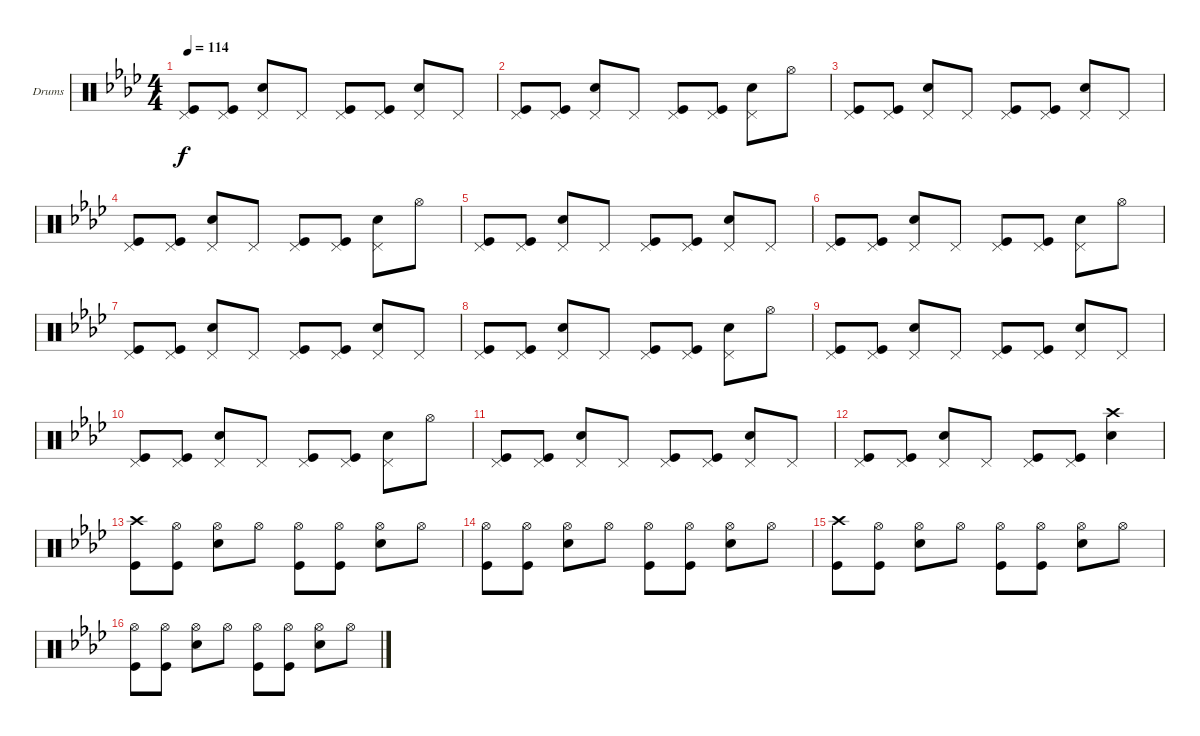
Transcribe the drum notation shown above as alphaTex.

\defaultSystemsLayout 4
\bracketExtendMode groupsimilarinstruments
\firstSystemTrackNameOrientation horizontal
\otherSystemsTrackNameOrientation horizontal
\track ("Drumkit" "Drums") {instrument percussion}
\staff {score}
\articulation defaults
\ts (4 4)
\tempo 114
\clef neutral
\scale
1.06431
\ks ab
("Pedal Hi-Hat (hit)" "Kick (hit)").8{dy f} ("Pedal Hi-Hat (hit)" "Kick (hit)").8 ("Pedal Hi-Hat (hit)" "Snare (hit) 2").8 "Pedal Hi-Hat (hit)".8 ("Pedal Hi-Hat (hit)" "Kick (hit)").8 ("Pedal Hi-Hat (hit)" "Kick (hit)").8 ("Pedal Hi-Hat (hit)" "Snare (hit) 2").8 "Pedal Hi-Hat (hit)".8 |
\scale
0.935687 ("Pedal Hi-Hat (hit)" "Kick (hit)").8 ("Pedal Hi-Hat (hit)" "Kick (hit)").8 ("Pedal Hi-Hat (hit)" "Snare (hit) 2").8 "Pedal Hi-Hat (hit)".8 ("Pedal Hi-Hat (hit)" "Kick (hit)").8 ("Pedal Hi-Hat (hit)" "Kick (hit)").8 ("Pedal Hi-Hat (hit)" "Snare (hit) 2").8 "Hi-Hat (open)".8 |
\scale
1.06431 ("Pedal Hi-Hat (hit)" "Kick (hit)").8 ("Pedal Hi-Hat (hit)" "Kick (hit)").8 ("Pedal Hi-Hat (hit)" "Snare (hit) 2").8 "Pedal Hi-Hat (hit)".8 ("Pedal Hi-Hat (hit)" "Kick (hit)").8 ("Pedal Hi-Hat (hit)" "Kick (hit)").8 ("Pedal Hi-Hat (hit)" "Snare (hit) 2").8 "Pedal Hi-Hat (hit)".8 |
\scale
0.935687 ("Pedal Hi-Hat (hit)" "Kick (hit)").8 ("Pedal Hi-Hat (hit)" "Kick (hit)").8 ("Pedal Hi-Hat (hit)" "Snare (hit) 2").8 "Pedal Hi-Hat (hit)".8 ("Pedal Hi-Hat (hit)" "Kick (hit)").8 ("Pedal Hi-Hat (hit)" "Kick (hit)").8 ("Pedal Hi-Hat (hit)" "Snare (hit) 2").8 "Hi-Hat (open)".8 |
\scale
1.06431 ("Pedal Hi-Hat (hit)" "Kick (hit)").8 ("Pedal Hi-Hat (hit)" "Kick (hit)").8 ("Pedal Hi-Hat (hit)" "Snare (hit) 2").8 "Pedal Hi-Hat (hit)".8 ("Pedal Hi-Hat (hit)" "Kick (hit)").8 ("Pedal Hi-Hat (hit)" "Kick (hit)").8 ("Pedal Hi-Hat (hit)" "Snare (hit) 2").8 "Pedal Hi-Hat (hit)".8 |
\scale
0.935687 ("Pedal Hi-Hat (hit)" "Kick (hit)").8 ("Pedal Hi-Hat (hit)" "Kick (hit)").8 ("Pedal Hi-Hat (hit)" "Snare (hit) 2").8 "Pedal Hi-Hat (hit)".8 ("Pedal Hi-Hat (hit)" "Kick (hit)").8 ("Pedal Hi-Hat (hit)" "Kick (hit)").8 ("Pedal Hi-Hat (hit)" "Snare (hit) 2").8 "Hi-Hat (open)".8 |
\scale
1.06431 ("Pedal Hi-Hat (hit)" "Kick (hit)").8 ("Pedal Hi-Hat (hit)" "Kick (hit)").8 ("Pedal Hi-Hat (hit)" "Snare (hit) 2").8 "Pedal Hi-Hat (hit)".8 ("Pedal Hi-Hat (hit)" "Kick (hit)").8 ("Pedal Hi-Hat (hit)" "Kick (hit)").8 ("Pedal Hi-Hat (hit)" "Snare (hit) 2").8 "Pedal Hi-Hat (hit)".8 |
\scale
0.935687 ("Pedal Hi-Hat (hit)" "Kick (hit)").8 ("Pedal Hi-Hat (hit)" "Kick (hit)").8 ("Pedal Hi-Hat (hit)" "Snare (hit) 2").8 "Pedal Hi-Hat (hit)".8 ("Pedal Hi-Hat (hit)" "Kick (hit)").8 ("Pedal Hi-Hat (hit)" "Kick (hit)").8 ("Pedal Hi-Hat (hit)" "Snare (hit) 2").8 "Hi-Hat (open)".8 |
\scale
1.06431 ("Pedal Hi-Hat (hit)" "Kick (hit)").8 ("Pedal Hi-Hat (hit)" "Kick (hit)").8 ("Pedal Hi-Hat (hit)" "Snare (hit) 2").8 "Pedal Hi-Hat (hit)".8 ("Pedal Hi-Hat (hit)" "Kick (hit)").8 ("Pedal Hi-Hat (hit)" "Kick (hit)").8 ("Pedal Hi-Hat (hit)" "Snare (hit) 2").8 "Pedal Hi-Hat (hit)".8 |
\scale
0.935687 ("Pedal Hi-Hat (hit)" "Kick (hit)").8 ("Pedal Hi-Hat (hit)" "Kick (hit)").8 ("Pedal Hi-Hat (hit)" "Snare (hit) 2").8 "Pedal Hi-Hat (hit)".8 ("Pedal Hi-Hat (hit)" "Kick (hit)").8 ("Pedal Hi-Hat (hit)" "Kick (hit)").8 ("Pedal Hi-Hat (hit)" "Snare (hit) 2").8 "Hi-Hat (open)".8 |
\scale
1.06431 ("Pedal Hi-Hat (hit)" "Kick (hit)").8 ("Pedal Hi-Hat (hit)" "Kick (hit)").8 ("Pedal Hi-Hat (hit)" "Snare (hit) 2").8 "Pedal Hi-Hat (hit)".8 ("Pedal Hi-Hat (hit)" "Kick (hit)").8 ("Pedal Hi-Hat (hit)" "Kick (hit)").8 ("Pedal Hi-Hat (hit)" "Snare (hit) 2").8 "Pedal Hi-Hat (hit)".8 |
\scale
0.935687 ("Pedal Hi-Hat (hit)" "Kick (hit)").8 ("Pedal Hi-Hat (hit)" "Kick (hit)").8 ("Pedal Hi-Hat (hit)" "Snare (hit) 2").8 "Pedal Hi-Hat (hit)".8 ("Pedal Hi-Hat (hit)" "Kick (hit)").8 ("Pedal Hi-Hat (hit)" "Kick (hit)").8 ("Crash high (hit)" "Snare (hit) 2").4 |
\scale
1.06431 ("Crash high (hit)" "Kick (hit)").8 ("Hi-Hat (open)" "Kick (hit)").8 ("Hi-Hat (open)" "Snare (hit) 2").8 "Hi-Hat (open)".8 ("Hi-Hat (open)" "Kick (hit)").8 ("Hi-Hat (open)" "Kick (hit)").8 ("Hi-Hat (open)" "Snare (hit) 2").8 "Hi-Hat (open)".8 |
\scale
0.935687 ("Hi-Hat (open)" "Kick (hit)").8 ("Hi-Hat (open)" "Kick (hit)").8 ("Hi-Hat (open)" "Snare (hit) 2").8 "Hi-Hat (open)".8 ("Hi-Hat (open)" "Kick (hit)").8 ("Hi-Hat (open)" "Kick (hit)").8 ("Hi-Hat (open)" "Snare (hit) 2").8 "Hi-Hat (open)".8 |
\scale
1.06431 ("Crash high (hit)" "Kick (hit)").8 ("Hi-Hat (open)" "Kick (hit)").8 ("Hi-Hat (open)" "Snare (hit) 2").8 "Hi-Hat (open)".8 ("Hi-Hat (open)" "Kick (hit)").8 ("Hi-Hat (open)" "Kick (hit)").8 ("Hi-Hat (open)" "Snare (hit) 2").8 "Hi-Hat (open)".8 |
\scale
0.935687 ("Hi-Hat (open)" "Kick (hit)").8 ("Hi-Hat (open)" "Kick (hit)").8 ("Hi-Hat (open)" "Snare (hit) 2").8 "Hi-Hat (open)".8 ("Hi-Hat (open)" "Kick (hit)").8 ("Hi-Hat (open)" "Kick (hit)").8 ("Hi-Hat (open)" "Snare (hit) 2").8 "Hi-Hat (open)".8
